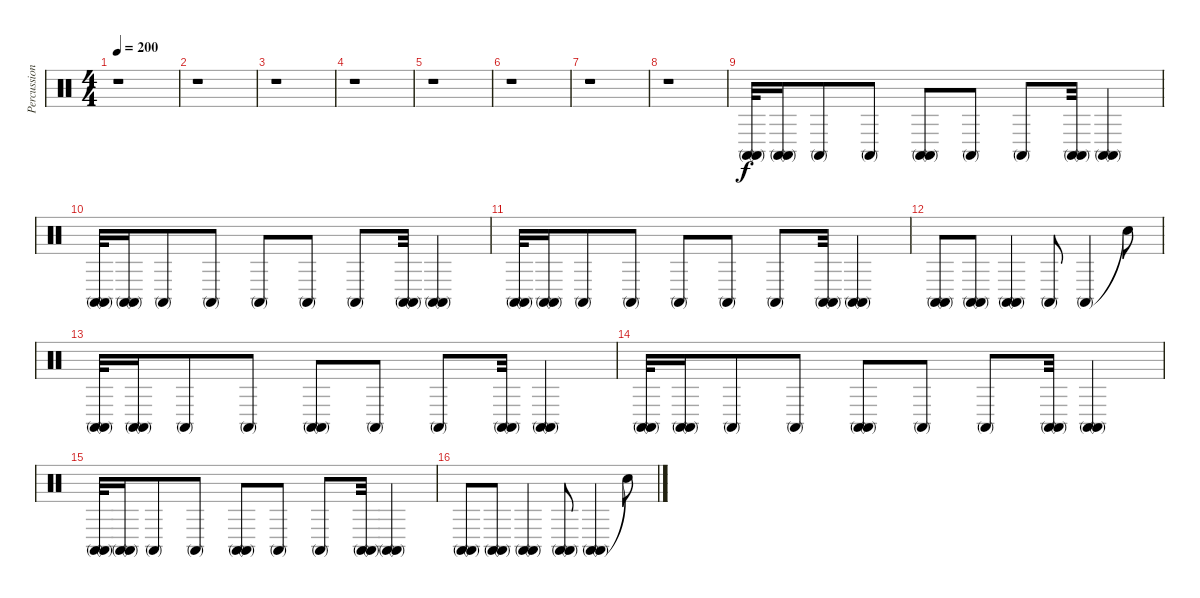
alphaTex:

\track ("Percussion 2" "Percussion") {instrument percussion}
\staff {score}
\articulation defaults
\ts (4 4)
\tempo 200
\clef neutral
\ks c
r.1{dy f} |
r.1 |
r.1 |
r.1 |
r.1 |
r.1 |
r.1 |
r.1 |
("Conga high (mute)" "Conga high (mute)").32 ("Conga high (mute)" "Conga high (mute)").16 "Conga high (mute)".8 "Conga high (mute)".8 ("Conga high (mute)" "Conga high (mute)").8 "Conga high (mute)".8 "Conga high (mute)".8 ("Conga high (mute)" "Conga high (mute)").32 ("Conga high (mute)" "Conga high (mute)").4 |
("Conga high (mute)" "Conga high (mute)").32 ("Conga high (mute)" "Conga high (mute)").16 "Conga high (mute)".8 "Conga high (mute)".8 "Conga high (mute)".8 "Conga high (mute)".8 "Conga high (mute)".8 ("Conga high (mute)" "Conga high (mute)").32 ("Conga high (mute)" "Conga high (mute)").4 |
("Conga high (mute)" "Conga high (mute)").32 ("Conga high (mute)" "Conga high (mute)").16 "Conga high (mute)".8 "Conga high (mute)".8 "Conga high (mute)".8 "Conga high (mute)".8 "Conga high (mute)".8 ("Conga high (mute)" "Conga high (mute)").32 ("Conga high (mute)" "Conga high (mute)").4 |
("Conga high (mute)" "Conga high (mute)").8 ("Conga high (mute)" "Conga high (mute)").8 ("Conga high (mute)" "Conga high (mute)").4 "Conga high (mute)".8 "Conga high (mute)".4 "Snare (hit)"{t}.8 |
("Conga high (mute)" "Conga high (mute)").32 ("Conga high (mute)" "Conga high (mute)").16 "Conga high (mute)".8 "Conga high (mute)".8 ("Conga high (mute)" "Conga high (mute)").8 "Conga high (mute)".8 "Conga high (mute)".8 ("Conga high (mute)" "Conga high (mute)").32 ("Conga high (mute)" "Conga high (mute)").4 |
("Conga high (mute)" "Conga high (mute)").32 ("Conga high (mute)" "Conga high (mute)").16 "Conga high (mute)".8 "Conga high (mute)".8 ("Conga high (mute)" "Conga high (mute)").8 "Conga high (mute)".8 "Conga high (mute)".8 ("Conga high (mute)" "Conga high (mute)").32 ("Conga high (mute)" "Conga high (mute)").4 |
("Conga high (mute)" "Conga high (mute)").32 ("Conga high (mute)" "Conga high (mute)").16 "Conga high (mute)".8 "Conga high (mute)".8 ("Conga high (mute)" "Conga high (mute)").8 "Conga high (mute)".8 "Conga high (mute)".8 ("Conga high (mute)" "Conga high (mute)").32 ("Conga high (mute)" "Conga high (mute)").4 |
("Conga high (mute)" "Conga high (mute)").8 ("Conga high (mute)" "Conga high (mute)").8 ("Conga high (mute)" "Conga high (mute)").4 ("Conga high (mute)" "Conga high (mute)").8 ("Conga high (mute)" "Conga high (mute)").4 "Snare (hit)"{t}.8
